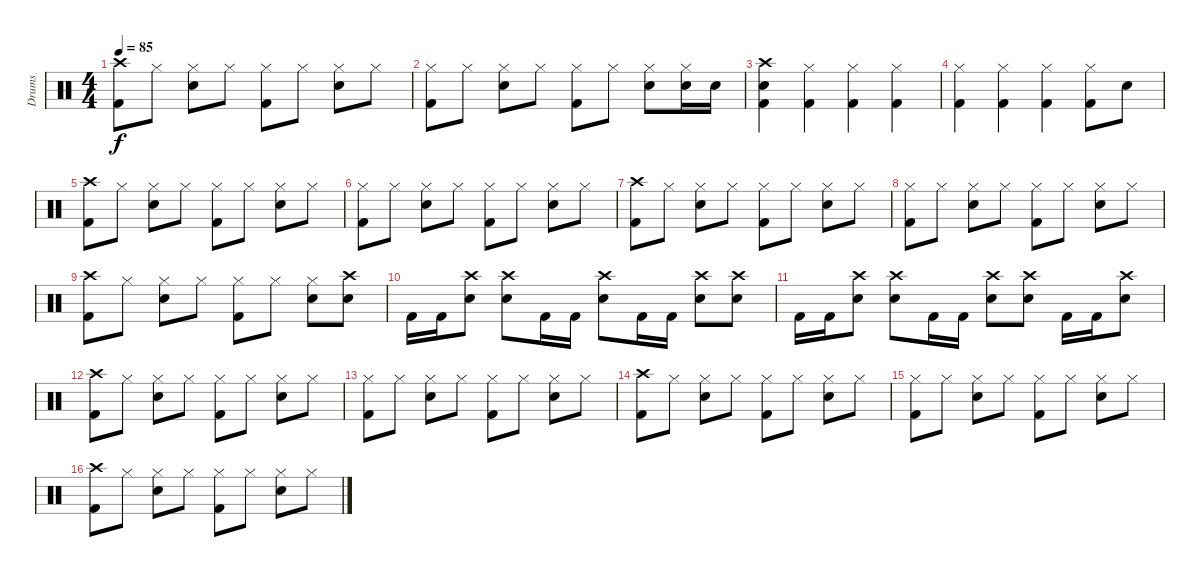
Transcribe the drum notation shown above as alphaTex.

\track ("Drums" "Drums") {instrument percussion}
\staff {score}
\articulation defaults
\ts (4 4)
\tempo 85
\clef neutral
\ks c
("Crash high (hit)" "Kick (hit) 2").8{dy f} "Hi-Hat (closed)".8 ("Hi-Hat (closed)" "Snare (hit) 2").8 "Hi-Hat (closed)".8 ("Hi-Hat (closed)" "Kick (hit) 2").8 "Hi-Hat (closed)".8 ("Hi-Hat (closed)" "Snare (hit) 2").8 "Hi-Hat (closed)".8 |
("Hi-Hat (closed)" "Kick (hit) 2").8 "Hi-Hat (closed)".8 ("Hi-Hat (closed)" "Snare (hit) 2").8 "Hi-Hat (closed)".8 ("Hi-Hat (closed)" "Kick (hit) 2").8 "Hi-Hat (closed)".8 ("Hi-Hat (closed)" "Snare (hit) 2").8 ("Hi-Hat (closed)" "Snare (hit) 2").16 "Snare (hit) 2".16 |
("Crash high (hit)" "Snare (hit) 2" "Kick (hit) 2").4 ("Hi-Hat (closed)" "Kick (hit) 2").4 ("Hi-Hat (closed)" "Kick (hit) 2").4 ("Hi-Hat (closed)" "Kick (hit) 2").4 |
("Hi-Hat (closed)" "Kick (hit) 2").4 ("Hi-Hat (closed)" "Kick (hit) 2").4 ("Hi-Hat (closed)" "Kick (hit) 2").4 ("Hi-Hat (closed)" "Kick (hit) 2").8 "Snare (hit) 2".8 |
("Crash high (hit)" "Kick (hit) 2").8 "Hi-Hat (closed)".8 ("Hi-Hat (closed)" "Snare (hit) 2").8 "Hi-Hat (closed)".8 ("Hi-Hat (closed)" "Kick (hit) 2").8 "Hi-Hat (closed)".8 ("Hi-Hat (closed)" "Snare (hit) 2").8 "Hi-Hat (closed)".8 |
("Hi-Hat (closed)" "Kick (hit) 2").8 "Hi-Hat (closed)".8 ("Hi-Hat (closed)" "Snare (hit) 2").8 "Hi-Hat (closed)".8 ("Hi-Hat (closed)" "Kick (hit) 2").8 "Hi-Hat (closed)".8 ("Hi-Hat (closed)" "Snare (hit) 2").8 "Hi-Hat (closed)".8 |
("Crash high (hit)" "Kick (hit) 2").8 "Hi-Hat (closed)".8 ("Hi-Hat (closed)" "Snare (hit) 2").8 "Hi-Hat (closed)".8 ("Hi-Hat (closed)" "Kick (hit) 2").8 "Hi-Hat (closed)".8 ("Hi-Hat (closed)" "Snare (hit) 2").8 "Hi-Hat (closed)".8 |
("Hi-Hat (closed)" "Kick (hit) 2").8 "Hi-Hat (closed)".8 ("Hi-Hat (closed)" "Snare (hit) 2").8 "Hi-Hat (closed)".8 ("Hi-Hat (closed)" "Kick (hit) 2").8 "Hi-Hat (closed)".8 ("Hi-Hat (closed)" "Snare (hit) 2").8 "Hi-Hat (closed)".8 |
("Crash high (hit)" "Kick (hit) 2").8 "Hi-Hat (closed)".8 ("Hi-Hat (closed)" "Snare (hit) 2").8 "Hi-Hat (closed)".8 ("Hi-Hat (closed)" "Kick (hit) 2").8 "Hi-Hat (closed)".8 ("Hi-Hat (closed)" "Snare (hit) 2").8 ("Crash high (hit)" "Snare (hit) 2").8 |
"Kick (hit) 2".16 "Kick (hit) 2".16 ("Crash high (hit)" "Snare (hit) 2").8 ("Crash high (hit)" "Snare (hit) 2").8 "Kick (hit) 2".16 "Kick (hit) 2".16 ("Crash high (hit)" "Snare (hit) 2").8 "Kick (hit) 2".16 "Kick (hit) 2".16 ("Crash high (hit)" "Snare (hit) 2").8 ("Crash high (hit)" "Snare (hit) 2").8 |
"Kick (hit) 2".16 "Kick (hit) 2".16 ("Crash high (hit)" "Snare (hit) 2").8 ("Crash high (hit)" "Snare (hit) 2").8 "Kick (hit) 2".16 "Kick (hit) 2".16 ("Crash high (hit)" "Snare (hit) 2").8 ("Crash high (hit)" "Snare (hit) 2").8 "Kick (hit) 2".16 "Kick (hit) 2".16 ("Crash high (hit)" "Snare (hit) 2").8 |
("Crash high (hit)" "Kick (hit) 2").8 "Hi-Hat (closed)".8 ("Hi-Hat (closed)" "Snare (hit) 2").8 "Hi-Hat (closed)".8 ("Hi-Hat (closed)" "Kick (hit) 2").8 "Hi-Hat (closed)".8 ("Hi-Hat (closed)" "Snare (hit) 2").8 "Hi-Hat (closed)".8 |
("Hi-Hat (closed)" "Kick (hit) 2").8 "Hi-Hat (closed)".8 ("Hi-Hat (closed)" "Snare (hit) 2").8 "Hi-Hat (closed)".8 ("Hi-Hat (closed)" "Kick (hit) 2").8 "Hi-Hat (closed)".8 ("Hi-Hat (closed)" "Snare (hit) 2").8 "Hi-Hat (closed)".8 |
("Crash high (hit)" "Kick (hit) 2").8 "Hi-Hat (closed)".8 ("Hi-Hat (closed)" "Snare (hit) 2").8 "Hi-Hat (closed)".8 ("Hi-Hat (closed)" "Kick (hit) 2").8 "Hi-Hat (closed)".8 ("Hi-Hat (closed)" "Snare (hit) 2").8 "Hi-Hat (closed)".8 |
("Hi-Hat (closed)" "Kick (hit) 2").8 "Hi-Hat (closed)".8 ("Hi-Hat (closed)" "Snare (hit) 2").8 "Hi-Hat (closed)".8 ("Hi-Hat (closed)" "Kick (hit) 2").8 "Hi-Hat (closed)".8 ("Hi-Hat (closed)" "Snare (hit) 2").8 "Hi-Hat (closed)".8 |
("Crash high (hit)" "Kick (hit) 2").8 "Hi-Hat (closed)".8 ("Hi-Hat (closed)" "Snare (hit) 2").8 "Hi-Hat (closed)".8 ("Hi-Hat (closed)" "Kick (hit) 2").8 "Hi-Hat (closed)".8 ("Hi-Hat (closed)" "Snare (hit) 2").8 "Hi-Hat (closed)".8
